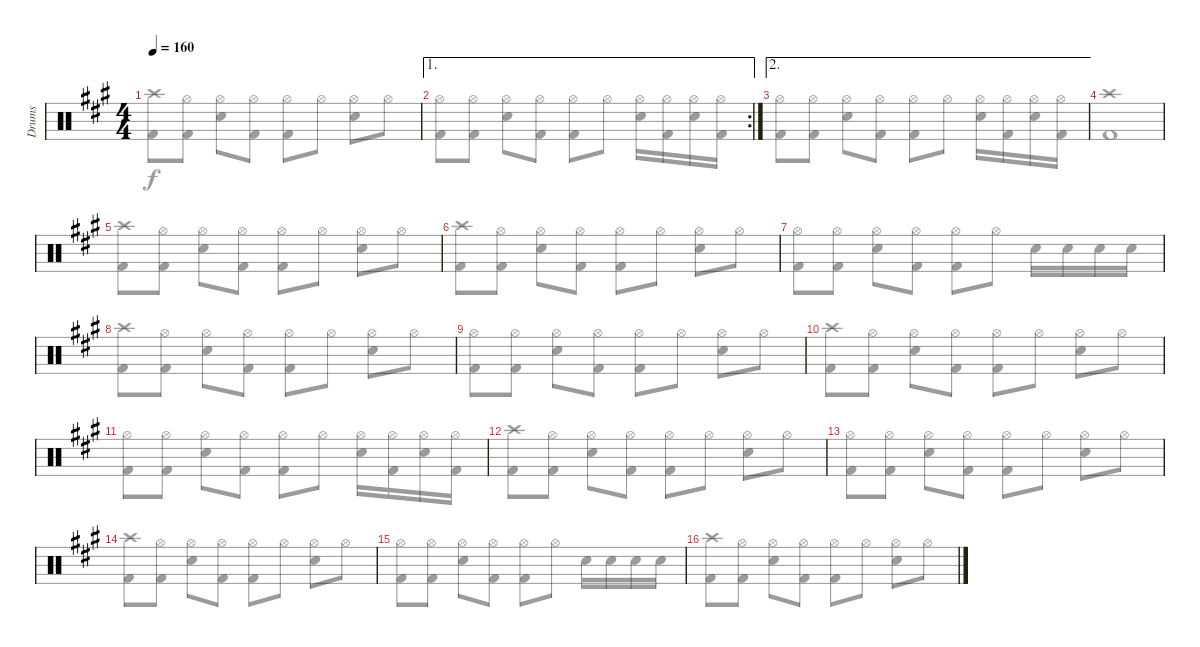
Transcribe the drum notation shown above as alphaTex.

\track ("Drums" "Drums") {instrument percussion}
\staff {score}
\articulation defaults
\voice
\ts (4 4)
\tempo 160
\clef neutral
\ks f#minor
|
\ae 1
\rc 2
|
\ae 2
|
|
|
|
|
|
|
|
|
|
|
|
|
\voice
\clef neutral
\ks f#minor
("Kick (hit) 2" "Crash high (hit)").8{dy f} ("Kick (hit) 2" "Hi-Hat (open)").8 ("Electric Snare (hit)" "Hi-Hat (open)").8 ("Kick (hit) 2" "Hi-Hat (open)").8 ("Kick (hit) 2" "Hi-Hat (open)").8 "Hi-Hat (open)".8 ("Electric Snare (hit)" "Hi-Hat (open)").8 "Hi-Hat (open)".8 |
("Kick (hit) 2" "Hi-Hat (open)").8 ("Kick (hit) 2" "Hi-Hat (open)").8 ("Electric Snare (hit)" "Hi-Hat (open)").8 ("Kick (hit) 2" "Hi-Hat (open)").8 ("Kick (hit) 2" "Hi-Hat (open)").8 "Hi-Hat (open)".8 ("Electric Snare (hit)" "Hi-Hat (open)").16 ("Kick (hit) 2" "Hi-Hat (open)").16 ("Electric Snare (hit)" "Hi-Hat (open)").16 ("Kick (hit) 2" "Hi-Hat (open)").16 |
("Kick (hit) 2" "Hi-Hat (open)").8 ("Kick (hit) 2" "Hi-Hat (open)").8 ("Electric Snare (hit)" "Hi-Hat (open)").8 ("Kick (hit) 2" "Hi-Hat (open)").8 ("Kick (hit) 2" "Hi-Hat (open)").8 "Hi-Hat (open)".8 ("Electric Snare (hit)" "Hi-Hat (open)").16 ("Kick (hit) 2" "Hi-Hat (open)").16 ("Electric Snare (hit)" "Hi-Hat (open)").16 ("Kick (hit) 2" "Hi-Hat (open)").16 |
("Kick (hit) 2" "Crash high (hit)").1 |
("Kick (hit) 2" "Crash high (hit)").8 ("Kick (hit) 2" "Hi-Hat (open)").8 ("Electric Snare (hit)" "Hi-Hat (open)").8 ("Kick (hit) 2" "Hi-Hat (open)").8 ("Kick (hit) 2" "Hi-Hat (open)").8 "Hi-Hat (open)".8 ("Electric Snare (hit)" "Hi-Hat (open)").8 "Hi-Hat (open)".8 |
("Kick (hit) 2" "Crash high (hit)").8 ("Kick (hit) 2" "Hi-Hat (open)").8 ("Electric Snare (hit)" "Hi-Hat (open)").8 ("Kick (hit) 2" "Hi-Hat (open)").8 ("Kick (hit) 2" "Hi-Hat (open)").8 "Hi-Hat (open)".8 ("Electric Snare (hit)" "Hi-Hat (open)").8 "Hi-Hat (open)".8 |
("Kick (hit) 2" "Hi-Hat (open)").8 ("Kick (hit) 2" "Hi-Hat (open)").8 ("Electric Snare (hit)" "Hi-Hat (open)").8 ("Kick (hit) 2" "Hi-Hat (open)").8 ("Kick (hit) 2" "Hi-Hat (open)").8 "Hi-Hat (open)".8 "Electric Snare (hit)".16 "Electric Snare (hit)".16 "Electric Snare (hit)".16 "Electric Snare (hit)".16 |
("Kick (hit) 2" "Crash high (hit)").8 ("Kick (hit) 2" "Hi-Hat (open)").8 ("Electric Snare (hit)" "Hi-Hat (open)").8 ("Kick (hit) 2" "Hi-Hat (open)").8 ("Kick (hit) 2" "Hi-Hat (open)").8 "Hi-Hat (open)".8 ("Electric Snare (hit)" "Hi-Hat (open)").8 "Hi-Hat (open)".8 |
("Kick (hit) 2" "Hi-Hat (open)").8 ("Kick (hit) 2" "Hi-Hat (open)").8 ("Electric Snare (hit)" "Hi-Hat (open)").8 ("Kick (hit) 2" "Hi-Hat (open)").8 ("Kick (hit) 2" "Hi-Hat (open)").8 "Hi-Hat (open)".8 ("Electric Snare (hit)" "Hi-Hat (open)").8 "Hi-Hat (open)".8 |
("Kick (hit) 2" "Crash high (hit)").8 ("Kick (hit) 2" "Hi-Hat (open)").8 ("Electric Snare (hit)" "Hi-Hat (open)").8 ("Kick (hit) 2" "Hi-Hat (open)").8 ("Kick (hit) 2" "Hi-Hat (open)").8 "Hi-Hat (open)".8 ("Electric Snare (hit)" "Hi-Hat (open)").8 "Hi-Hat (open)".8 |
("Kick (hit) 2" "Hi-Hat (open)").8 ("Kick (hit) 2" "Hi-Hat (open)").8 ("Electric Snare (hit)" "Hi-Hat (open)").8 ("Kick (hit) 2" "Hi-Hat (open)").8 ("Kick (hit) 2" "Hi-Hat (open)").8 "Hi-Hat (open)".8 ("Electric Snare (hit)" "Hi-Hat (open)").16 ("Kick (hit) 2" "Hi-Hat (open)").16 ("Electric Snare (hit)" "Hi-Hat (open)").16 ("Kick (hit) 2" "Hi-Hat (open)").16 |
("Kick (hit) 2" "Crash high (hit)").8 ("Kick (hit) 2" "Hi-Hat (open)").8 ("Electric Snare (hit)" "Hi-Hat (open)").8 ("Kick (hit) 2" "Hi-Hat (open)").8 ("Kick (hit) 2" "Hi-Hat (open)").8 "Hi-Hat (open)".8 ("Electric Snare (hit)" "Hi-Hat (open)").8 "Hi-Hat (open)".8 |
("Kick (hit) 2" "Hi-Hat (open)").8 ("Kick (hit) 2" "Hi-Hat (open)").8 ("Electric Snare (hit)" "Hi-Hat (open)").8 ("Kick (hit) 2" "Hi-Hat (open)").8 ("Kick (hit) 2" "Hi-Hat (open)").8 "Hi-Hat (open)".8 ("Electric Snare (hit)" "Hi-Hat (open)").8 "Hi-Hat (open)".8 |
("Kick (hit) 2" "Crash high (hit)").8 ("Kick (hit) 2" "Hi-Hat (open)").8 ("Electric Snare (hit)" "Hi-Hat (open)").8 ("Kick (hit) 2" "Hi-Hat (open)").8 ("Kick (hit) 2" "Hi-Hat (open)").8 "Hi-Hat (open)".8 ("Electric Snare (hit)" "Hi-Hat (open)").8 "Hi-Hat (open)".8 |
("Kick (hit) 2" "Hi-Hat (open)").8 ("Kick (hit) 2" "Hi-Hat (open)").8 ("Electric Snare (hit)" "Hi-Hat (open)").8 ("Kick (hit) 2" "Hi-Hat (open)").8 ("Kick (hit) 2" "Hi-Hat (open)").8 "Hi-Hat (open)".8 "Electric Snare (hit)".16 "Electric Snare (hit)".16 "Electric Snare (hit)".16 "Electric Snare (hit)".16 |
("Kick (hit) 2" "Crash high (hit)").8 ("Kick (hit) 2" "Hi-Hat (open)").8 ("Electric Snare (hit)" "Hi-Hat (open)").8 ("Kick (hit) 2" "Hi-Hat (open)").8 ("Kick (hit) 2" "Hi-Hat (open)").8 "Hi-Hat (open)".8 ("Electric Snare (hit)" "Hi-Hat (open)").8 "Hi-Hat (open)".8
